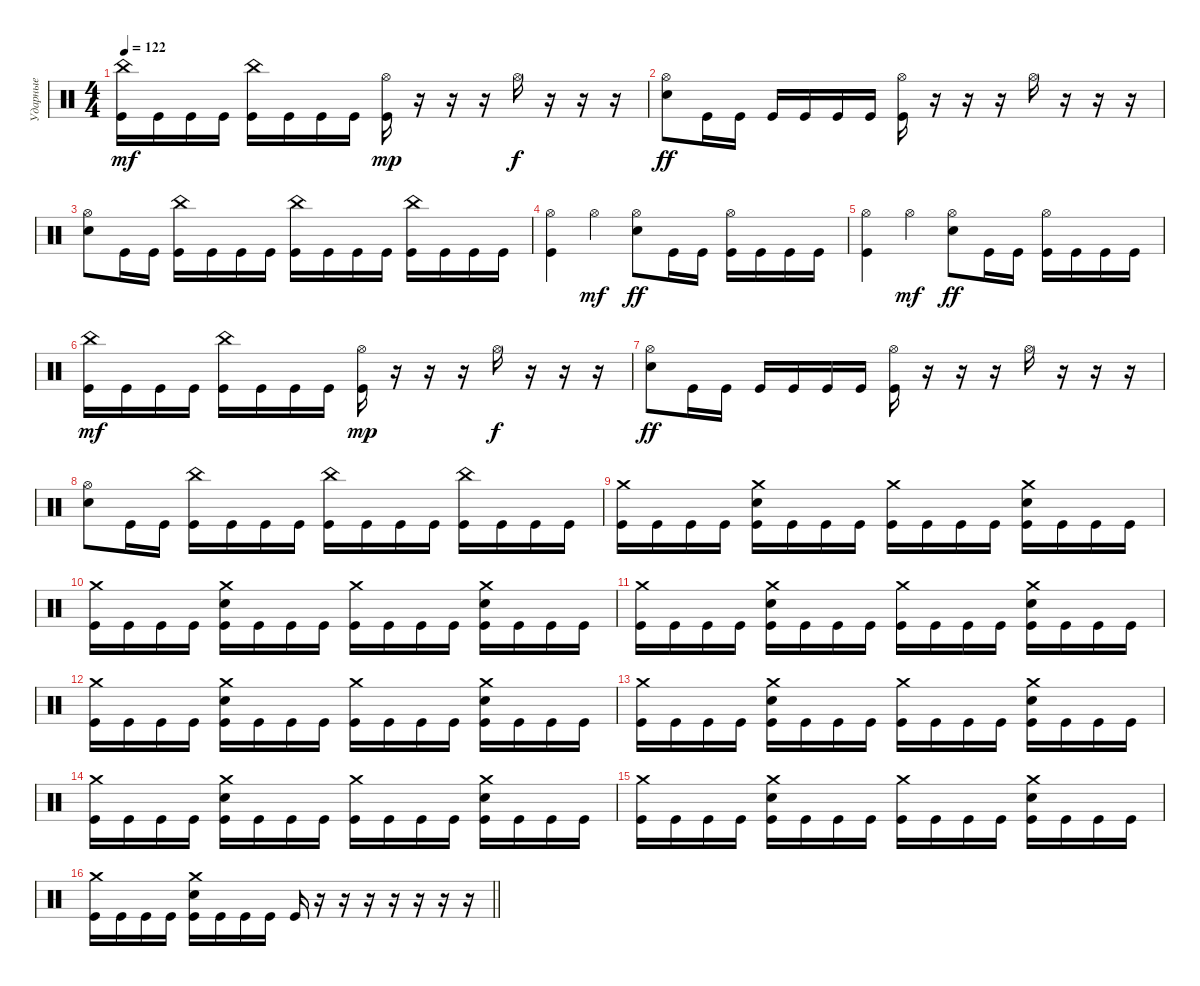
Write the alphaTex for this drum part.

\track ("Ударные" "Ударные") {instrument percussion}
\staff {score}
\articulation defaults
\ts (4 4)
\tempo 122
\clef neutral
\ks c
("China (hit)" "Kick (hit)").16{dy mf} "Kick (hit)".16 "Kick (hit)".16 "Kick (hit)".16 ("China (hit)" "Kick (hit)").16 "Kick (hit)".16 "Kick (hit)".16 "Kick (hit)".16 ("Hi-Hat (open)" "Kick (hit)").16{dy mp} r.16 r.16 r.16 "Hi-Hat (open)".16{dy f} r.16 r.16 r.16 |
("Hi-Hat (open)" "Electric Snare (hit)").8{dy ff} "Kick (hit)".16 "Kick (hit)".16 "Kick (hit)".16 "Kick (hit)".16 "Kick (hit)".16 "Kick (hit)".16 ("Hi-Hat (open)" "Kick (hit)").16 r.16 r.16 r.16 "Hi-Hat (open)".16 r.16 r.16 r.16 |
("Hi-Hat (open)" "Electric Snare (hit)").8 "Kick (hit)".16 "Kick (hit)".16 ("China (hit)" "Kick (hit)").16 "Kick (hit)".16 "Kick (hit)".16 "Kick (hit)".16 ("China (hit)" "Kick (hit)").16 "Kick (hit)".16 "Kick (hit)".16 "Kick (hit)".16 ("China (hit)" "Kick (hit)").16 "Kick (hit)".16 "Kick (hit)".16 "Kick (hit)".16 |
("Hi-Hat (open)" "Kick (hit)").4 "Hi-Hat (open)".4{dy mf} ("Hi-Hat (open)" "Electric Snare (hit)").8{dy ff} "Kick (hit)".16 "Kick (hit)".16 ("Hi-Hat (open)" "Kick (hit)").16 "Kick (hit)".16 "Kick (hit)".16 "Kick (hit)".16 |
("Hi-Hat (open)" "Kick (hit)").4 "Hi-Hat (open)".4{dy mf} ("Hi-Hat (open)" "Electric Snare (hit)").8{dy ff} "Kick (hit)".16 "Kick (hit)".16 ("Hi-Hat (open)" "Kick (hit)").16 "Kick (hit)".16 "Kick (hit)".16 "Kick (hit)".16 |
("China (hit)" "Kick (hit)").16{dy mf} "Kick (hit)".16 "Kick (hit)".16 "Kick (hit)".16 ("China (hit)" "Kick (hit)").16 "Kick (hit)".16 "Kick (hit)".16 "Kick (hit)".16 ("Hi-Hat (open)" "Kick (hit)").16{dy mp} r.16 r.16 r.16 "Hi-Hat (open)".16{dy f} r.16 r.16 r.16 |
("Hi-Hat (open)" "Electric Snare (hit)").8{dy ff} "Kick (hit)".16 "Kick (hit)".16 "Kick (hit)".16 "Kick (hit)".16 "Kick (hit)".16 "Kick (hit)".16 ("Hi-Hat (open)" "Kick (hit)").16 r.16 r.16 r.16 "Hi-Hat (open)".16 r.16 r.16 r.16 |
("Hi-Hat (open)" "Electric Snare (hit)").8 "Kick (hit)".16 "Kick (hit)".16 ("China (hit)" "Kick (hit)").16 "Kick (hit)".16 "Kick (hit)".16 "Kick (hit)".16 ("China (hit)" "Kick (hit)").16 "Kick (hit)".16 "Kick (hit)".16 "Kick (hit)".16 ("China (hit)" "Kick (hit)").16 "Kick (hit)".16 "Kick (hit)".16 "Kick (hit)".16 |
("Crash medium (hit)" "Kick (hit)").16 "Kick (hit)".16 "Kick (hit)".16 "Kick (hit)".16 ("Crash medium (hit)" "Electric Snare (hit)" "Kick (hit)").16 "Kick (hit)".16 "Kick (hit)".16 "Kick (hit)".16 ("Crash medium (hit)" "Kick (hit)").16 "Kick (hit)".16 "Kick (hit)".16 "Kick (hit)".16 ("Crash medium (hit)" "Electric Snare (hit)" "Kick (hit)").16 "Kick (hit)".16 "Kick (hit)".16 "Kick (hit)".16 |
("Crash medium (hit)" "Kick (hit)").16 "Kick (hit)".16 "Kick (hit)".16 "Kick (hit)".16 ("Crash medium (hit)" "Electric Snare (hit)" "Kick (hit)").16 "Kick (hit)".16 "Kick (hit)".16 "Kick (hit)".16 ("Crash medium (hit)" "Kick (hit)").16 "Kick (hit)".16 "Kick (hit)".16 "Kick (hit)".16 ("Crash medium (hit)" "Electric Snare (hit)" "Kick (hit)").16 "Kick (hit)".16 "Kick (hit)".16 "Kick (hit)".16 |
("Crash medium (hit)" "Kick (hit)").16 "Kick (hit)".16 "Kick (hit)".16 "Kick (hit)".16 ("Crash medium (hit)" "Electric Snare (hit)" "Kick (hit)").16 "Kick (hit)".16 "Kick (hit)".16 "Kick (hit)".16 ("Crash medium (hit)" "Kick (hit)").16 "Kick (hit)".16 "Kick (hit)".16 "Kick (hit)".16 ("Crash medium (hit)" "Electric Snare (hit)" "Kick (hit)").16 "Kick (hit)".16 "Kick (hit)".16 "Kick (hit)".16 |
("Crash medium (hit)" "Kick (hit)").16 "Kick (hit)".16 "Kick (hit)".16 "Kick (hit)".16 ("Crash medium (hit)" "Electric Snare (hit)" "Kick (hit)").16 "Kick (hit)".16 "Kick (hit)".16 "Kick (hit)".16 ("Crash medium (hit)" "Kick (hit)").16 "Kick (hit)".16 "Kick (hit)".16 "Kick (hit)".16 ("Crash medium (hit)" "Electric Snare (hit)" "Kick (hit)").16 "Kick (hit)".16 "Kick (hit)".16 "Kick (hit)".16 |
("Crash medium (hit)" "Kick (hit)").16 "Kick (hit)".16 "Kick (hit)".16 "Kick (hit)".16 ("Crash medium (hit)" "Electric Snare (hit)" "Kick (hit)").16 "Kick (hit)".16 "Kick (hit)".16 "Kick (hit)".16 ("Crash medium (hit)" "Kick (hit)").16 "Kick (hit)".16 "Kick (hit)".16 "Kick (hit)".16 ("Crash medium (hit)" "Electric Snare (hit)" "Kick (hit)").16 "Kick (hit)".16 "Kick (hit)".16 "Kick (hit)".16 |
("Crash medium (hit)" "Kick (hit)").16 "Kick (hit)".16 "Kick (hit)".16 "Kick (hit)".16 ("Crash medium (hit)" "Electric Snare (hit)" "Kick (hit)").16 "Kick (hit)".16 "Kick (hit)".16 "Kick (hit)".16 ("Crash medium (hit)" "Kick (hit)").16 "Kick (hit)".16 "Kick (hit)".16 "Kick (hit)".16 ("Crash medium (hit)" "Electric Snare (hit)" "Kick (hit)").16 "Kick (hit)".16 "Kick (hit)".16 "Kick (hit)".16 |
("Crash medium (hit)" "Kick (hit)").16 "Kick (hit)".16 "Kick (hit)".16 "Kick (hit)".16 ("Crash medium (hit)" "Electric Snare (hit)" "Kick (hit)").16 "Kick (hit)".16 "Kick (hit)".16 "Kick (hit)".16 ("Crash medium (hit)" "Kick (hit)").16 "Kick (hit)".16 "Kick (hit)".16 "Kick (hit)".16 ("Crash medium (hit)" "Electric Snare (hit)" "Kick (hit)").16 "Kick (hit)".16 "Kick (hit)".16 "Kick (hit)".16 |
\barLineRight lightlight
("Crash medium (hit)" "Kick (hit)").16 "Kick (hit)".16 "Kick (hit)".16 "Kick (hit)".16 ("Crash medium (hit)" "Electric Snare (hit)" "Kick (hit)").16 "Kick (hit)".16 "Kick (hit)".16 "Kick (hit)".16 "Kick (hit)".16 r.16 r.16 r.16 r.16 r.16 r.16 r.16
